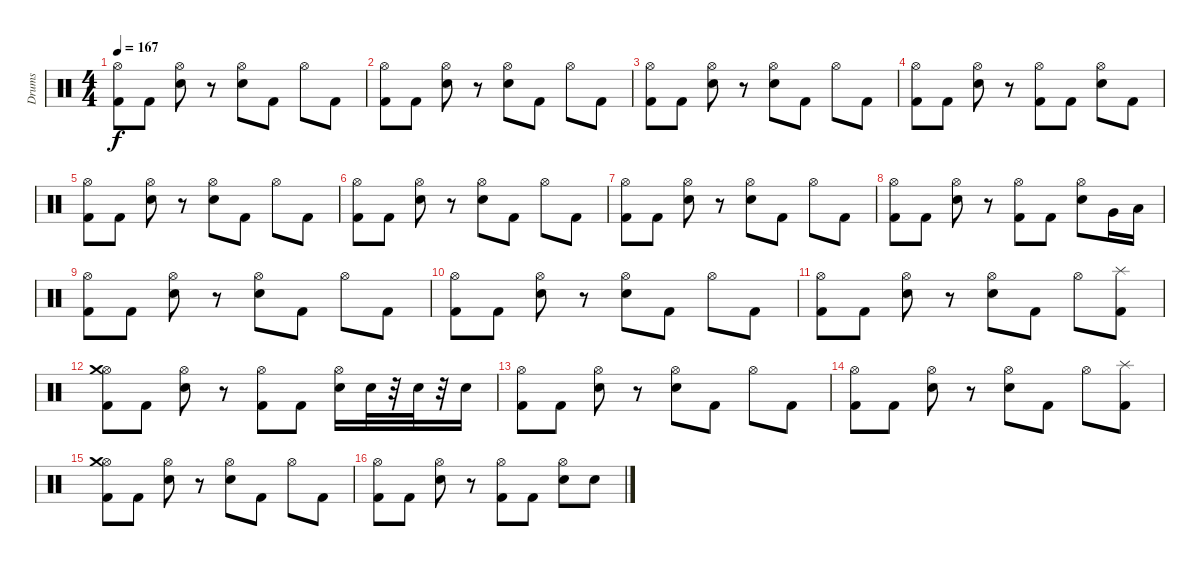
\track ("Drums" "Drums") {instrument percussion}
\staff {score}
\articulation defaults
\ts (4 4)
\tempo 167
\clef neutral
\ks c
("Hi-Hat (open)" "Kick (hit) 2").8{dy f} "Kick (hit) 2".8 ("Hi-Hat (open)" "Electric Snare (hit)").8 r.8 ("Hi-Hat (open)" "Electric Snare (hit)").8 "Kick (hit) 2".8 "Hi-Hat (open)".8 "Kick (hit) 2".8 |
("Hi-Hat (open)" "Kick (hit) 2").8 "Kick (hit) 2".8 ("Hi-Hat (open)" "Electric Snare (hit)").8 r.8 ("Hi-Hat (open)" "Electric Snare (hit)").8 "Kick (hit) 2".8 "Hi-Hat (open)".8 "Kick (hit) 2".8 |
("Hi-Hat (open)" "Kick (hit) 2").8 "Kick (hit) 2".8 ("Hi-Hat (open)" "Electric Snare (hit)").8 r.8 ("Hi-Hat (open)" "Electric Snare (hit)").8 "Kick (hit) 2".8 "Hi-Hat (open)".8 "Kick (hit) 2".8 |
("Hi-Hat (open)" "Kick (hit) 2").8 "Kick (hit) 2".8 ("Hi-Hat (open)" "Electric Snare (hit)").8 r.8 ("Hi-Hat (open)" "Kick (hit) 2").8 "Kick (hit) 2".8 ("Hi-Hat (open)" "Electric Snare (hit)").8 "Kick (hit) 2".8 |
("Hi-Hat (open)" "Kick (hit) 2").8 "Kick (hit) 2".8 ("Hi-Hat (open)" "Electric Snare (hit)").8 r.8 ("Hi-Hat (open)" "Electric Snare (hit)").8 "Kick (hit) 2".8 "Hi-Hat (open)".8 "Kick (hit) 2".8 |
("Hi-Hat (open)" "Kick (hit) 2").8 "Kick (hit) 2".8 ("Hi-Hat (open)" "Electric Snare (hit)").8 r.8 ("Hi-Hat (open)" "Electric Snare (hit)").8 "Kick (hit) 2".8 "Hi-Hat (open)".8 "Kick (hit) 2".8 |
("Hi-Hat (open)" "Kick (hit) 2").8 "Kick (hit) 2".8 ("Hi-Hat (open)" "Electric Snare (hit)").8 r.8 ("Hi-Hat (open)" "Electric Snare (hit)").8 "Kick (hit) 2".8 "Hi-Hat (open)".8 "Kick (hit) 2".8 |
("Hi-Hat (open)" "Kick (hit) 2").8 "Kick (hit) 2".8 ("Hi-Hat (open)" "Electric Snare (hit)").8 r.8 ("Hi-Hat (open)" "Kick (hit) 2").8 "Kick (hit) 2".8 ("Hi-Hat (open)" "Electric Snare (hit)").8 "Very Low Tom (hit)".16 "Low Floor Tom (hit)".16 |
("Hi-Hat (open)" "Kick (hit) 2").8 "Kick (hit) 2".8 ("Hi-Hat (open)" "Electric Snare (hit)").8 r.8 ("Hi-Hat (open)" "Electric Snare (hit)").8 "Kick (hit) 2".8 "Hi-Hat (open)".8 "Kick (hit) 2".8 |
("Hi-Hat (open)" "Kick (hit) 2").8 "Kick (hit) 2".8 ("Hi-Hat (open)" "Electric Snare (hit)").8 r.8 ("Hi-Hat (open)" "Electric Snare (hit)").8 "Kick (hit) 2".8 "Hi-Hat (open)".8 "Kick (hit) 2".8 |
("Hi-Hat (open)" "Kick (hit) 2").8 "Kick (hit) 2".8 ("Hi-Hat (open)" "Electric Snare (hit)").8 r.8 ("Hi-Hat (open)" "Electric Snare (hit)").8 "Kick (hit) 2".8 "Hi-Hat (open)".8 ("Kick (hit) 2" "Splash (hit)").8 |
("Hi-Hat (open)" "Kick (hit) 2" "Crash medium (hit)").8 "Kick (hit) 2".8 ("Hi-Hat (open)" "Electric Snare (hit)").8 r.8 ("Hi-Hat (open)" "Kick (hit) 2").8 "Kick (hit) 2".8 ("Hi-Hat (open)" "Electric Snare (hit)").16 "Electric Snare (hit)".32 r.32 "Electric Snare (hit)".32 r.32 "Electric Snare (hit)".16 |
("Hi-Hat (open)" "Kick (hit) 2").8 "Kick (hit) 2".8 ("Hi-Hat (open)" "Electric Snare (hit)").8 r.8 ("Hi-Hat (open)" "Electric Snare (hit)").8 "Kick (hit) 2".8 "Hi-Hat (open)".8 "Kick (hit) 2".8 |
("Hi-Hat (open)" "Kick (hit) 2").8 "Kick (hit) 2".8 ("Hi-Hat (open)" "Electric Snare (hit)").8 r.8 ("Hi-Hat (open)" "Electric Snare (hit)").8 "Kick (hit) 2".8 "Hi-Hat (open)".8 ("Kick (hit) 2" "Splash (hit)").8 |
("Hi-Hat (open)" "Kick (hit) 2" "Crash medium (hit)").8 "Kick (hit) 2".8 ("Hi-Hat (open)" "Electric Snare (hit)").8 r.8 ("Hi-Hat (open)" "Electric Snare (hit)").8 "Kick (hit) 2".8 "Hi-Hat (open)".8 "Kick (hit) 2".8 |
("Hi-Hat (open)" "Kick (hit) 2").8 "Kick (hit) 2".8 ("Hi-Hat (open)" "Electric Snare (hit)").8 r.8 ("Hi-Hat (open)" "Kick (hit) 2").8 "Kick (hit) 2".8 ("Hi-Hat (open)" "Electric Snare (hit)").8 "Electric Snare (hit)".8
